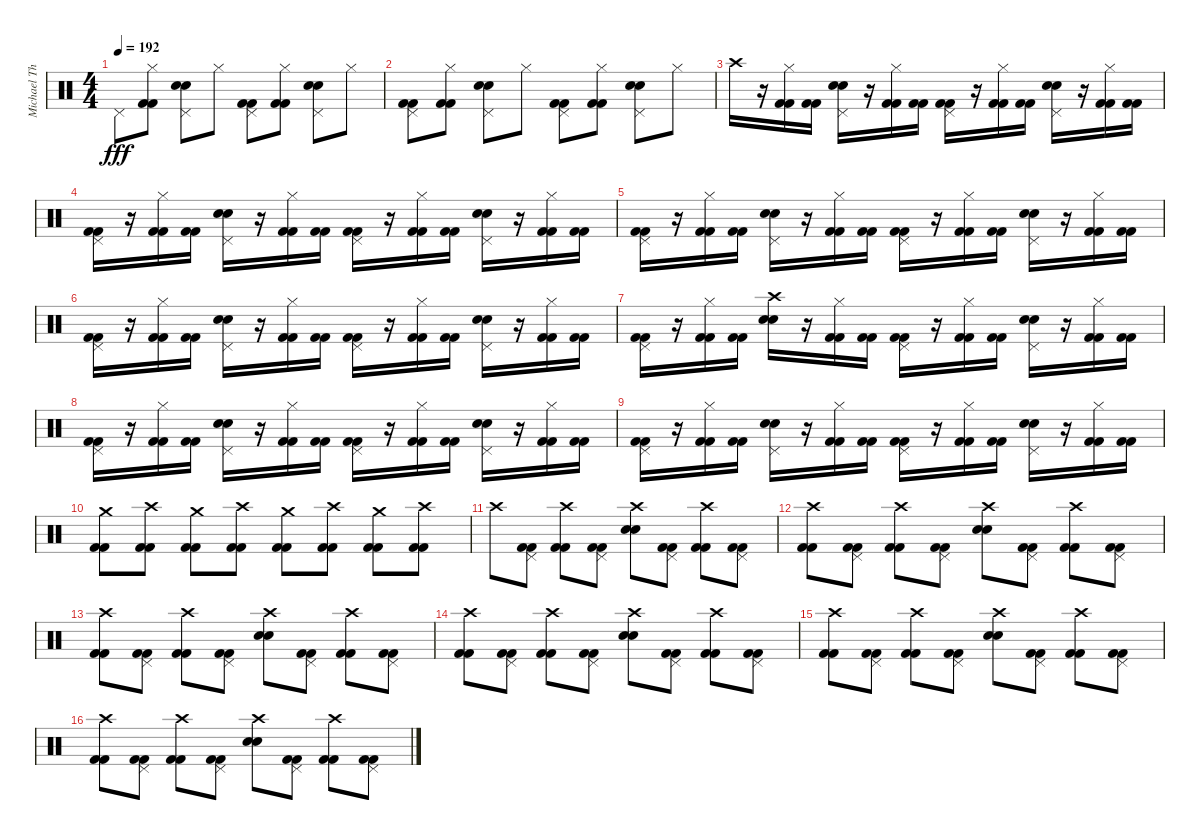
\track ("Michael Thomas" "Michael Th") {instrument percussion}
\staff {score}
\articulation defaults
\ts (4 4)
\tempo 192
\clef neutral
\ks c "Pedal Hi-Hat (hit)".8{dy fff}
("Hi-Hat (closed)" "Kick (hit) 2" "Kick (hit) 2").8 ("Pedal Hi-Hat (hit)" "Snare (hit) 2" "Electric Snare (hit)").8 "Hi-Hat (closed)".8 ("Pedal Hi-Hat (hit)" "Kick (hit) 2" "Kick (hit) 2").8 ("Hi-Hat (closed)" "Kick (hit) 2" "Kick (hit) 2").8 ("Pedal Hi-Hat (hit)" "Snare (hit) 2" "Electric Snare (hit)").8 "Hi-Hat (closed)".8 |
("Pedal Hi-Hat (hit)" "Kick (hit) 2" "Kick (hit) 2").8 ("Hi-Hat (closed)" "Kick (hit) 2" "Kick (hit) 2").8 ("Pedal Hi-Hat (hit)" "Snare (hit) 2" "Electric Snare (hit)").8 "Hi-Hat (closed)".8 ("Pedal Hi-Hat (hit)" "Kick (hit) 2" "Kick (hit) 2").8 ("Hi-Hat (closed)" "Kick (hit) 2" "Kick (hit) 2").8 ("Pedal Hi-Hat (hit)" "Snare (hit) 2" "Electric Snare (hit)").8 "Hi-Hat (closed)".8 |
"Crash high (hit)".16 r.16 ("Hi-Hat (closed)" "Kick (hit) 2" "Kick (hit) 2").16 ("Kick (hit) 2" "Kick (hit) 2").16 ("Pedal Hi-Hat (hit)" "Snare (hit) 2" "Electric Snare (hit)").16 r.16 ("Hi-Hat (closed)" "Kick (hit) 2" "Kick (hit) 2").16 ("Kick (hit) 2" "Kick (hit) 2").16 ("Pedal Hi-Hat (hit)" "Kick (hit) 2" "Kick (hit) 2").16 r.16 ("Hi-Hat (closed)" "Kick (hit) 2" "Kick (hit) 2").16 ("Kick (hit) 2" "Kick (hit) 2").16 ("Pedal Hi-Hat (hit)" "Snare (hit) 2" "Electric Snare (hit)").16 r.16 ("Hi-Hat (closed)" "Kick (hit) 2" "Kick (hit) 2").16 ("Kick (hit) 2" "Kick (hit) 2").16 |
("Pedal Hi-Hat (hit)" "Kick (hit) 2" "Kick (hit) 2").16 r.16 ("Hi-Hat (closed)" "Kick (hit) 2" "Kick (hit) 2").16 ("Kick (hit) 2" "Kick (hit) 2").16 ("Pedal Hi-Hat (hit)" "Snare (hit) 2" "Electric Snare (hit)").16 r.16 ("Hi-Hat (closed)" "Kick (hit) 2" "Kick (hit) 2").16 ("Kick (hit) 2" "Kick (hit) 2").16 ("Pedal Hi-Hat (hit)" "Kick (hit) 2" "Kick (hit) 2").16 r.16 ("Hi-Hat (closed)" "Kick (hit) 2" "Kick (hit) 2").16 ("Kick (hit) 2" "Kick (hit) 2").16 ("Pedal Hi-Hat (hit)" "Snare (hit) 2" "Electric Snare (hit)").16 r.16 ("Hi-Hat (closed)" "Kick (hit) 2" "Kick (hit) 2").16 ("Kick (hit) 2" "Kick (hit) 2").16 |
("Pedal Hi-Hat (hit)" "Kick (hit) 2" "Kick (hit) 2").16 r.16 ("Hi-Hat (closed)" "Kick (hit) 2" "Kick (hit) 2").16 ("Kick (hit) 2" "Kick (hit) 2").16 ("Pedal Hi-Hat (hit)" "Snare (hit) 2" "Electric Snare (hit)").16 r.16 ("Hi-Hat (closed)" "Kick (hit) 2" "Kick (hit) 2").16 ("Kick (hit) 2" "Kick (hit) 2").16 ("Pedal Hi-Hat (hit)" "Kick (hit) 2" "Kick (hit) 2").16 r.16 ("Hi-Hat (closed)" "Kick (hit) 2" "Kick (hit) 2").16 ("Kick (hit) 2" "Kick (hit) 2").16 ("Pedal Hi-Hat (hit)" "Snare (hit) 2" "Electric Snare (hit)").16 r.16 ("Hi-Hat (closed)" "Kick (hit) 2" "Kick (hit) 2").16 ("Kick (hit) 2" "Kick (hit) 2").16 |
("Pedal Hi-Hat (hit)" "Kick (hit) 2" "Kick (hit) 2").16 r.16 ("Hi-Hat (closed)" "Kick (hit) 2" "Kick (hit) 2").16 ("Kick (hit) 2" "Kick (hit) 2").16 ("Pedal Hi-Hat (hit)" "Snare (hit) 2" "Electric Snare (hit)").16 r.16 ("Hi-Hat (closed)" "Kick (hit) 2" "Kick (hit) 2").16 ("Kick (hit) 2" "Kick (hit) 2").16 ("Pedal Hi-Hat (hit)" "Kick (hit) 2" "Kick (hit) 2").16 r.16 ("Hi-Hat (closed)" "Kick (hit) 2" "Kick (hit) 2").16 ("Kick (hit) 2" "Kick (hit) 2").16 ("Pedal Hi-Hat (hit)" "Snare (hit) 2" "Electric Snare (hit)").16 r.16 ("Hi-Hat (closed)" "Kick (hit) 2" "Kick (hit) 2").16 ("Kick (hit) 2" "Kick (hit) 2").16 |
("Pedal Hi-Hat (hit)" "Kick (hit) 2" "Kick (hit) 2").16 r.16 ("Hi-Hat (closed)" "Kick (hit) 2" "Kick (hit) 2").16 ("Kick (hit) 2" "Kick (hit) 2").16 ("Crash high (hit)" "Snare (hit) 2" "Electric Snare (hit)").16 r.16 ("Hi-Hat (closed)" "Kick (hit) 2" "Kick (hit) 2").16 ("Kick (hit) 2" "Kick (hit) 2").16 ("Pedal Hi-Hat (hit)" "Kick (hit) 2" "Kick (hit) 2").16 r.16 ("Hi-Hat (closed)" "Kick (hit) 2" "Kick (hit) 2").16 ("Kick (hit) 2" "Kick (hit) 2").16 ("Pedal Hi-Hat (hit)" "Snare (hit) 2" "Electric Snare (hit)").16 r.16 ("Hi-Hat (closed)" "Kick (hit) 2" "Kick (hit) 2").16 ("Kick (hit) 2" "Kick (hit) 2").16 |
("Pedal Hi-Hat (hit)" "Kick (hit) 2" "Kick (hit) 2").16 r.16 ("Hi-Hat (closed)" "Kick (hit) 2" "Kick (hit) 2").16 ("Kick (hit) 2" "Kick (hit) 2").16 ("Pedal Hi-Hat (hit)" "Snare (hit) 2" "Electric Snare (hit)").16 r.16 ("Hi-Hat (closed)" "Kick (hit) 2" "Kick (hit) 2").16 ("Kick (hit) 2" "Kick (hit) 2").16 ("Pedal Hi-Hat (hit)" "Kick (hit) 2" "Kick (hit) 2").16 r.16 ("Hi-Hat (closed)" "Kick (hit) 2" "Kick (hit) 2").16 ("Kick (hit) 2" "Kick (hit) 2").16 ("Pedal Hi-Hat (hit)" "Snare (hit) 2" "Electric Snare (hit)").16 r.16 ("Hi-Hat (closed)" "Kick (hit) 2" "Kick (hit) 2").16 ("Kick (hit) 2" "Kick (hit) 2").16 |
("Pedal Hi-Hat (hit)" "Kick (hit) 2" "Kick (hit) 2").16 r.16 ("Hi-Hat (closed)" "Kick (hit) 2" "Kick (hit) 2").16 ("Kick (hit) 2" "Kick (hit) 2").16 ("Pedal Hi-Hat (hit)" "Snare (hit) 2" "Electric Snare (hit)").16 r.16 ("Hi-Hat (closed)" "Kick (hit) 2" "Kick (hit) 2").16 ("Kick (hit) 2" "Kick (hit) 2").16 ("Pedal Hi-Hat (hit)" "Kick (hit) 2" "Kick (hit) 2").16 r.16 ("Hi-Hat (closed)" "Kick (hit) 2" "Kick (hit) 2").16 ("Kick (hit) 2" "Kick (hit) 2").16 ("Pedal Hi-Hat (hit)" "Snare (hit) 2" "Electric Snare (hit)").16 r.16 ("Hi-Hat (closed)" "Kick (hit) 2" "Kick (hit) 2").16 ("Kick (hit) 2" "Kick (hit) 2").16 |
("Crash medium (hit)" "Kick (hit) 2" "Kick (hit) 2").8 ("Crash high (hit)" "Kick (hit) 2" "Kick (hit) 2").8 ("Crash medium (hit)" "Kick (hit) 2" "Kick (hit) 2").8 ("Crash high (hit)" "Kick (hit) 2" "Kick (hit) 2").8 ("Crash medium (hit)" "Kick (hit) 2" "Kick (hit) 2").8 ("Crash high (hit)" "Kick (hit) 2" "Kick (hit) 2").8 ("Crash medium (hit)" "Kick (hit) 2" "Kick (hit) 2").8 ("Crash high (hit)" "Kick (hit) 2" "Kick (hit) 2").8 |
"Crash high (hit)".8 ("Pedal Hi-Hat (hit)" "Kick (hit) 2" "Kick (hit) 2").8 ("Crash high (hit)" "Kick (hit) 2" "Kick (hit) 2").8 ("Pedal Hi-Hat (hit)" "Kick (hit) 2" "Kick (hit) 2").8 ("Crash high (hit)" "Snare (hit) 2" "Electric Snare (hit)").8 ("Pedal Hi-Hat (hit)" "Kick (hit) 2" "Kick (hit) 2").8 ("Crash high (hit)" "Kick (hit) 2" "Kick (hit) 2").8 ("Pedal Hi-Hat (hit)" "Kick (hit) 2" "Kick (hit) 2").8 |
("Crash high (hit)" "Kick (hit) 2" "Kick (hit) 2").8 ("Pedal Hi-Hat (hit)" "Kick (hit) 2" "Kick (hit) 2").8 ("Crash high (hit)" "Kick (hit) 2" "Kick (hit) 2").8 ("Pedal Hi-Hat (hit)" "Kick (hit) 2" "Kick (hit) 2").8 ("Crash high (hit)" "Snare (hit) 2" "Electric Snare (hit)").8 ("Pedal Hi-Hat (hit)" "Kick (hit) 2" "Kick (hit) 2").8 ("Crash high (hit)" "Kick (hit) 2" "Kick (hit) 2").8 ("Pedal Hi-Hat (hit)" "Kick (hit) 2" "Kick (hit) 2").8 |
("Crash high (hit)" "Kick (hit) 2" "Kick (hit) 2").8 ("Pedal Hi-Hat (hit)" "Kick (hit) 2" "Kick (hit) 2").8 ("Crash high (hit)" "Kick (hit) 2" "Kick (hit) 2").8 ("Pedal Hi-Hat (hit)" "Kick (hit) 2" "Kick (hit) 2").8 ("Crash high (hit)" "Snare (hit) 2" "Electric Snare (hit)").8 ("Pedal Hi-Hat (hit)" "Kick (hit) 2" "Kick (hit) 2").8 ("Crash high (hit)" "Kick (hit) 2" "Kick (hit) 2").8 ("Pedal Hi-Hat (hit)" "Kick (hit) 2" "Kick (hit) 2").8 |
("Crash high (hit)" "Kick (hit) 2" "Kick (hit) 2").8 ("Pedal Hi-Hat (hit)" "Kick (hit) 2" "Kick (hit) 2").8 ("Crash high (hit)" "Kick (hit) 2" "Kick (hit) 2").8 ("Pedal Hi-Hat (hit)" "Kick (hit) 2" "Kick (hit) 2").8 ("Crash high (hit)" "Snare (hit) 2" "Electric Snare (hit)").8 ("Pedal Hi-Hat (hit)" "Kick (hit) 2" "Kick (hit) 2").8 ("Crash high (hit)" "Kick (hit) 2" "Kick (hit) 2").8 ("Pedal Hi-Hat (hit)" "Kick (hit) 2" "Kick (hit) 2").8 |
("Crash high (hit)" "Kick (hit) 2" "Kick (hit) 2").8 ("Pedal Hi-Hat (hit)" "Kick (hit) 2" "Kick (hit) 2").8 ("Crash high (hit)" "Kick (hit) 2" "Kick (hit) 2").8 ("Pedal Hi-Hat (hit)" "Kick (hit) 2" "Kick (hit) 2").8 ("Crash high (hit)" "Snare (hit) 2" "Electric Snare (hit)").8 ("Pedal Hi-Hat (hit)" "Kick (hit) 2" "Kick (hit) 2").8 ("Crash high (hit)" "Kick (hit) 2" "Kick (hit) 2").8 ("Pedal Hi-Hat (hit)" "Kick (hit) 2" "Kick (hit) 2").8 |
("Crash high (hit)" "Kick (hit) 2" "Kick (hit) 2").8 ("Pedal Hi-Hat (hit)" "Kick (hit) 2" "Kick (hit) 2").8 ("Crash high (hit)" "Kick (hit) 2" "Kick (hit) 2").8 ("Pedal Hi-Hat (hit)" "Kick (hit) 2" "Kick (hit) 2").8 ("Crash high (hit)" "Snare (hit) 2" "Electric Snare (hit)").8 ("Pedal Hi-Hat (hit)" "Kick (hit) 2" "Kick (hit) 2").8 ("Crash high (hit)" "Kick (hit) 2" "Kick (hit) 2").8 ("Pedal Hi-Hat (hit)" "Kick (hit) 2" "Kick (hit) 2").8
